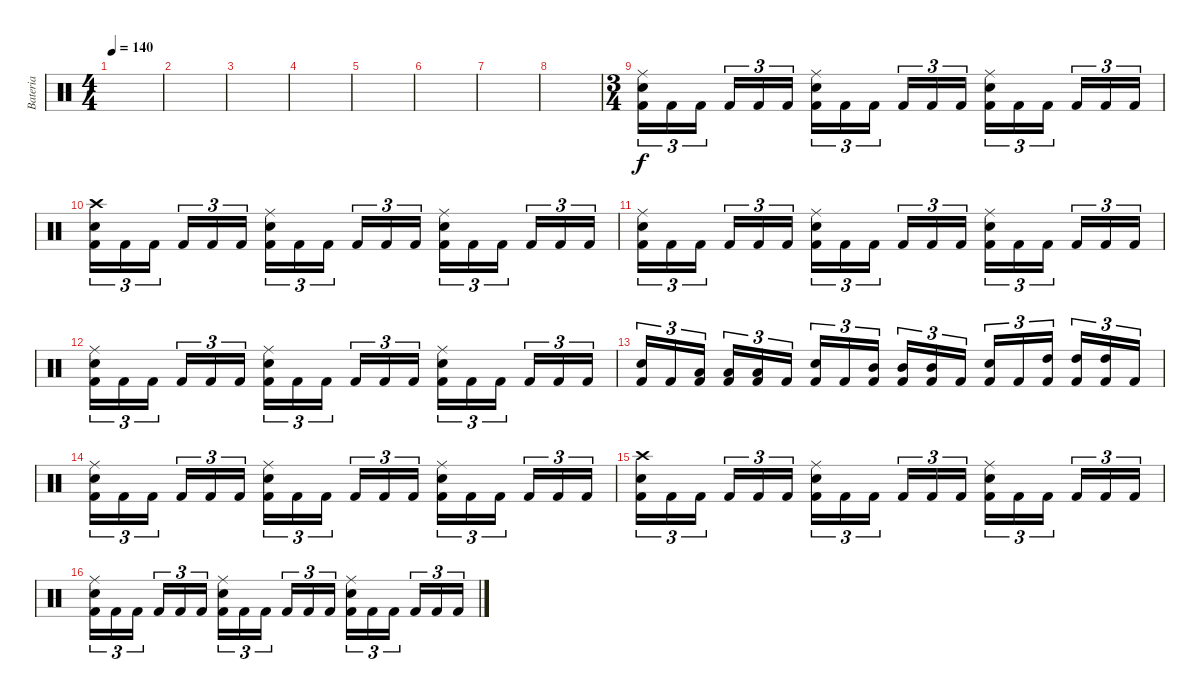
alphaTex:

\track ("Bateria" "Bateria") {instrument percussion}
\staff {score}
\articulation defaults
\ts (4 4)
\tempo 140
\clef neutral
\ks c
|
|
|
|
|
|
|
|
\ts (3 4)
("Kick (hit) 2" "Electric Snare (hit)" "Ride (middle)").16{tu (3 2)} "Kick (hit) 2".16{tu (3 2)} "Kick (hit) 2".16{tu (3 2)} "Kick (hit) 2".16{tu (3 2)} "Kick (hit) 2".16{tu (3 2)} "Kick (hit) 2".16{tu (3 2)} ("Kick (hit) 2" "Electric Snare (hit)" "Ride (middle)").16{tu (3 2)} "Kick (hit) 2".16{tu (3 2)} "Kick (hit) 2".16{tu (3 2)} "Kick (hit) 2".16{tu (3 2)} "Kick (hit) 2".16{tu (3 2)} "Kick (hit) 2".16{tu (3 2)} ("Kick (hit) 2" "Electric Snare (hit)" "Ride (middle)").16{tu (3 2)} "Kick (hit) 2".16{tu (3 2)} "Kick (hit) 2".16{tu (3 2)} "Kick (hit) 2".16{tu (3 2)} "Kick (hit) 2".16{tu (3 2)} "Kick (hit) 2".16{tu (3 2)} |
("Kick (hit) 2" "Electric Snare (hit)" "Crash high (hit)").16{tu (3 2)} "Kick (hit) 2".16{tu (3 2)} "Kick (hit) 2".16{tu (3 2)} "Kick (hit) 2".16{tu (3 2)} "Kick (hit) 2".16{tu (3 2)} "Kick (hit) 2".16{tu (3 2)} ("Kick (hit) 2" "Electric Snare (hit)" "Ride (middle)").16{tu (3 2)} "Kick (hit) 2".16{tu (3 2)} "Kick (hit) 2".16{tu (3 2)} "Kick (hit) 2".16{tu (3 2)} "Kick (hit) 2".16{tu (3 2)} "Kick (hit) 2".16{tu (3 2)} ("Kick (hit) 2" "Electric Snare (hit)" "Ride (middle)").16{tu (3 2)} "Kick (hit) 2".16{tu (3 2)} "Kick (hit) 2".16{tu (3 2)} "Kick (hit) 2".16{tu (3 2)} "Kick (hit) 2".16{tu (3 2)} "Kick (hit) 2".16{tu (3 2)} |
("Kick (hit) 2" "Electric Snare (hit)" "Ride (middle)").16{tu (3 2)} "Kick (hit) 2".16{tu (3 2)} "Kick (hit) 2".16{tu (3 2)} "Kick (hit) 2".16{tu (3 2)} "Kick (hit) 2".16{tu (3 2)} "Kick (hit) 2".16{tu (3 2)} ("Kick (hit) 2" "Electric Snare (hit)" "Ride (middle)").16{tu (3 2)} "Kick (hit) 2".16{tu (3 2)} "Kick (hit) 2".16{tu (3 2)} "Kick (hit) 2".16{tu (3 2)} "Kick (hit) 2".16{tu (3 2)} "Kick (hit) 2".16{tu (3 2)} ("Kick (hit) 2" "Electric Snare (hit)" "Ride (middle)").16{tu (3 2)} "Kick (hit) 2".16{tu (3 2)} "Kick (hit) 2".16{tu (3 2)} "Kick (hit) 2".16{tu (3 2)} "Kick (hit) 2".16{tu (3 2)} "Kick (hit) 2".16{tu (3 2)} |
("Kick (hit) 2" "Electric Snare (hit)" "Ride (middle)").16{tu (3 2)} "Kick (hit) 2".16{tu (3 2)} "Kick (hit) 2".16{tu (3 2)} "Kick (hit) 2".16{tu (3 2)} "Kick (hit) 2".16{tu (3 2)} "Kick (hit) 2".16{tu (3 2)} ("Kick (hit) 2" "Electric Snare (hit)" "Ride (middle)").16{tu (3 2)} "Kick (hit) 2".16{tu (3 2)} "Kick (hit) 2".16{tu (3 2)} "Kick (hit) 2".16{tu (3 2)} "Kick (hit) 2".16{tu (3 2)} "Kick (hit) 2".16{tu (3 2)} ("Kick (hit) 2" "Electric Snare (hit)" "Ride (middle)").16{tu (3 2)} "Kick (hit) 2".16{tu (3 2)} "Kick (hit) 2".16{tu (3 2)} "Kick (hit) 2".16{tu (3 2)} "Kick (hit) 2".16{tu (3 2)} "Kick (hit) 2".16{tu (3 2)} |
("Kick (hit) 2" "Electric Snare (hit)").16{tu (3 2)} "Kick (hit) 2".16{tu (3 2)} ("Kick (hit) 2" "Low Tom (hit)").16{tu (3 2)} ("Kick (hit) 2" "Low Tom (hit)").16{tu (3 2)} ("Kick (hit) 2" "Low Tom (hit)").16{tu (3 2)} "Kick (hit) 2".16{tu (3 2)} ("Kick (hit) 2" "Electric Snare (hit)").16{tu (3 2)} "Kick (hit) 2".16{tu (3 2)} ("Kick (hit) 2" "Mid Tom (hit)").16{tu (3 2)} ("Kick (hit) 2" "Mid Tom (hit)").16{tu (3 2)} ("Kick (hit) 2" "Mid Tom (hit)").16{tu (3 2)} "Kick (hit) 2".16{tu (3 2)} ("Kick (hit) 2" "Electric Snare (hit)").16{tu (3 2)} "Kick (hit) 2".16{tu (3 2)} ("Kick (hit) 2" "High Tom (hit)").16{tu (3 2)} ("Kick (hit) 2" "High Tom (hit)").16{tu (3 2)} ("Kick (hit) 2" "High Tom (hit)").16{tu (3 2)} "Kick (hit) 2".16{tu (3 2)} |
("Kick (hit) 2" "Electric Snare (hit)" "Ride (middle)").16{tu (3 2)} "Kick (hit) 2".16{tu (3 2)} "Kick (hit) 2".16{tu (3 2)} "Kick (hit) 2".16{tu (3 2)} "Kick (hit) 2".16{tu (3 2)} "Kick (hit) 2".16{tu (3 2)} ("Kick (hit) 2" "Electric Snare (hit)" "Ride (middle)").16{tu (3 2)} "Kick (hit) 2".16{tu (3 2)} "Kick (hit) 2".16{tu (3 2)} "Kick (hit) 2".16{tu (3 2)} "Kick (hit) 2".16{tu (3 2)} "Kick (hit) 2".16{tu (3 2)} ("Kick (hit) 2" "Electric Snare (hit)" "Ride (middle)").16{tu (3 2)} "Kick (hit) 2".16{tu (3 2)} "Kick (hit) 2".16{tu (3 2)} "Kick (hit) 2".16{tu (3 2)} "Kick (hit) 2".16{tu (3 2)} "Kick (hit) 2".16{tu (3 2)} |
("Kick (hit) 2" "Electric Snare (hit)" "Crash high (hit)").16{tu (3 2)} "Kick (hit) 2".16{tu (3 2)} "Kick (hit) 2".16{tu (3 2)} "Kick (hit) 2".16{tu (3 2)} "Kick (hit) 2".16{tu (3 2)} "Kick (hit) 2".16{tu (3 2)} ("Kick (hit) 2" "Electric Snare (hit)" "Ride (middle)").16{tu (3 2)} "Kick (hit) 2".16{tu (3 2)} "Kick (hit) 2".16{tu (3 2)} "Kick (hit) 2".16{tu (3 2)} "Kick (hit) 2".16{tu (3 2)} "Kick (hit) 2".16{tu (3 2)} ("Kick (hit) 2" "Electric Snare (hit)" "Ride (middle)").16{tu (3 2)} "Kick (hit) 2".16{tu (3 2)} "Kick (hit) 2".16{tu (3 2)} "Kick (hit) 2".16{tu (3 2)} "Kick (hit) 2".16{tu (3 2)} "Kick (hit) 2".16{tu (3 2)} |
("Kick (hit) 2" "Electric Snare (hit)" "Ride (middle)").16{tu (3 2)} "Kick (hit) 2".16{tu (3 2)} "Kick (hit) 2".16{tu (3 2)} "Kick (hit) 2".16{tu (3 2)} "Kick (hit) 2".16{tu (3 2)} "Kick (hit) 2".16{tu (3 2)} ("Kick (hit) 2" "Electric Snare (hit)" "Ride (middle)").16{tu (3 2)} "Kick (hit) 2".16{tu (3 2)} "Kick (hit) 2".16{tu (3 2)} "Kick (hit) 2".16{tu (3 2)} "Kick (hit) 2".16{tu (3 2)} "Kick (hit) 2".16{tu (3 2)} ("Kick (hit) 2" "Electric Snare (hit)" "Ride (middle)").16{tu (3 2)} "Kick (hit) 2".16{tu (3 2)} "Kick (hit) 2".16{tu (3 2)} "Kick (hit) 2".16{tu (3 2)} "Kick (hit) 2".16{tu (3 2)} "Kick (hit) 2".16{tu (3 2)}
